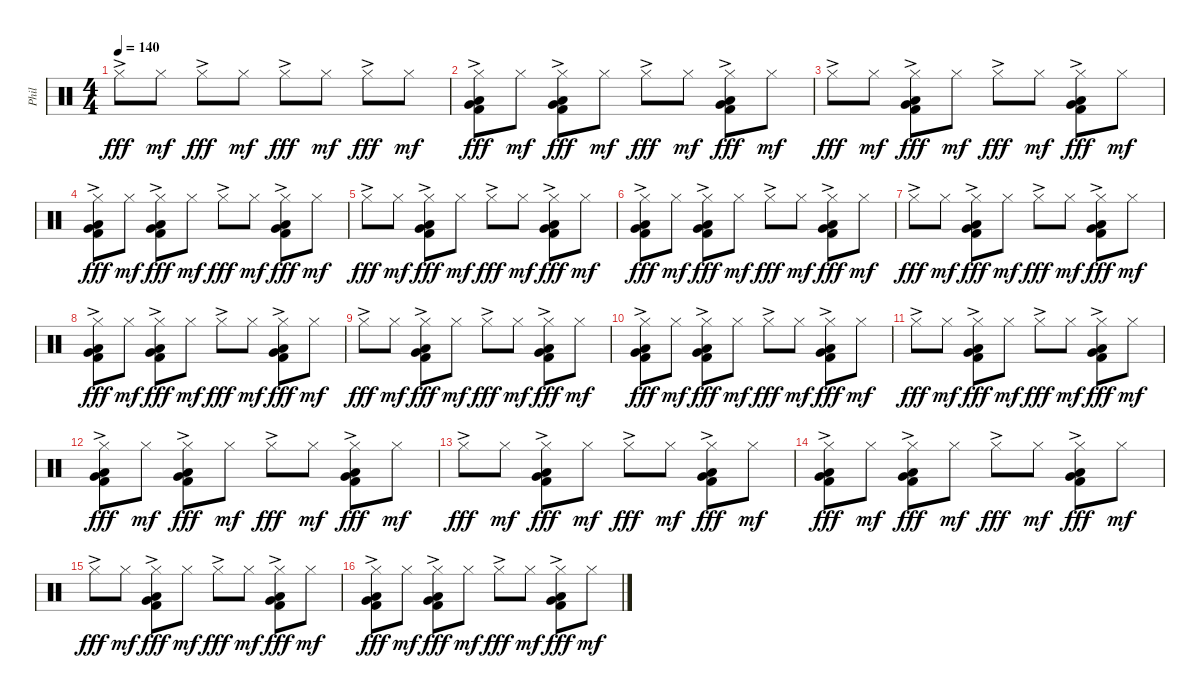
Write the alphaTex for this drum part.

\track ("Phil" "Phil") {instrument percussion}
\staff {score}
\articulation defaults
\ts (4 4)
\tempo 140
\clef neutral
\ks c "Hi-Hat (closed)"{ac}.8{dy fff} "Hi-Hat (closed)".8{dy mf} "Hi-Hat (closed)"{ac}.8{dy fff} "Hi-Hat (closed)".8{dy mf} "Hi-Hat (closed)"{ac}.8{dy fff} "Hi-Hat (closed)".8{dy mf} "Hi-Hat (closed)"{ac}.8{dy fff} "Hi-Hat (closed)".8{dy mf}
|
("Hi-Hat (closed)"{ac} "Very Low Tom (hit)"{ac} "Low Floor Tom (hit)"{ac} "Kick (hit) 2"{ac}).8{dy fff} "Hi-Hat (closed)".8{dy mf} ("Hi-Hat (closed)"{ac} "Very Low Tom (hit)"{ac} "Low Floor Tom (hit)"{ac} "Kick (hit) 2"{ac}).8{dy fff} "Hi-Hat (closed)".8{dy mf} "Hi-Hat (closed)"{ac}.8{dy fff} "Hi-Hat (closed)".8{dy mf} ("Hi-Hat (closed)"{ac} "Very Low Tom (hit)" "Low Floor Tom (hit)" "Kick (hit) 2").8{dy fff} "Hi-Hat (closed)".8{dy mf} |
"Hi-Hat (closed)"{ac}.8{dy fff} "Hi-Hat (closed)".8{dy mf} ("Hi-Hat (closed)"{ac} "Very Low Tom (hit)" "Low Floor Tom (hit)" "Kick (hit) 2").8{dy fff} "Hi-Hat (closed)".8{dy mf} "Hi-Hat (closed)"{ac}.8{dy fff} "Hi-Hat (closed)".8{dy mf} ("Hi-Hat (closed)"{ac} "Very Low Tom (hit)" "Low Floor Tom (hit)" "Kick (hit) 2").8{dy fff} "Hi-Hat (closed)".8{dy mf} |
("Hi-Hat (closed)"{ac} "Very Low Tom (hit)"{ac} "Low Floor Tom (hit)"{ac} "Kick (hit) 2"{ac}).8{dy fff} "Hi-Hat (closed)".8{dy mf} ("Hi-Hat (closed)"{ac} "Very Low Tom (hit)"{ac} "Low Floor Tom (hit)"{ac} "Kick (hit) 2"{ac}).8{dy fff} "Hi-Hat (closed)".8{dy mf} "Hi-Hat (closed)"{ac}.8{dy fff} "Hi-Hat (closed)".8{dy mf} ("Hi-Hat (closed)"{ac} "Very Low Tom (hit)" "Low Floor Tom (hit)" "Kick (hit) 2").8{dy fff} "Hi-Hat (closed)".8{dy mf} |
"Hi-Hat (closed)"{ac}.8{dy fff} "Hi-Hat (closed)".8{dy mf} ("Hi-Hat (closed)"{ac} "Very Low Tom (hit)" "Low Floor Tom (hit)" "Kick (hit) 2").8{dy fff} "Hi-Hat (closed)".8{dy mf} "Hi-Hat (closed)"{ac}.8{dy fff} "Hi-Hat (closed)".8{dy mf} ("Hi-Hat (closed)"{ac} "Very Low Tom (hit)" "Low Floor Tom (hit)" "Kick (hit) 2").8{dy fff} "Hi-Hat (closed)".8{dy mf} |
("Hi-Hat (closed)"{ac} "Very Low Tom (hit)"{ac} "Low Floor Tom (hit)"{ac} "Kick (hit) 2"{ac}).8{dy fff} "Hi-Hat (closed)".8{dy mf} ("Hi-Hat (closed)"{ac} "Very Low Tom (hit)"{ac} "Low Floor Tom (hit)"{ac} "Kick (hit) 2"{ac}).8{dy fff} "Hi-Hat (closed)".8{dy mf} "Hi-Hat (closed)"{ac}.8{dy fff} "Hi-Hat (closed)".8{dy mf} ("Hi-Hat (closed)"{ac} "Very Low Tom (hit)" "Low Floor Tom (hit)" "Kick (hit) 2").8{dy fff} "Hi-Hat (closed)".8{dy mf} |
"Hi-Hat (closed)"{ac}.8{dy fff} "Hi-Hat (closed)".8{dy mf} ("Hi-Hat (closed)"{ac} "Very Low Tom (hit)" "Low Floor Tom (hit)" "Kick (hit) 2").8{dy fff} "Hi-Hat (closed)".8{dy mf} "Hi-Hat (closed)"{ac}.8{dy fff} "Hi-Hat (closed)".8{dy mf} ("Hi-Hat (closed)"{ac} "Very Low Tom (hit)" "Low Floor Tom (hit)" "Kick (hit) 2").8{dy fff} "Hi-Hat (closed)".8{dy mf} |
("Hi-Hat (closed)"{ac} "Very Low Tom (hit)"{ac} "Low Floor Tom (hit)"{ac} "Kick (hit) 2"{ac}).8{dy fff} "Hi-Hat (closed)".8{dy mf} ("Hi-Hat (closed)"{ac} "Very Low Tom (hit)"{ac} "Low Floor Tom (hit)"{ac} "Kick (hit) 2"{ac}).8{dy fff} "Hi-Hat (closed)".8{dy mf} "Hi-Hat (closed)"{ac}.8{dy fff} "Hi-Hat (closed)".8{dy mf} ("Hi-Hat (closed)"{ac} "Very Low Tom (hit)" "Low Floor Tom (hit)" "Kick (hit) 2").8{dy fff} "Hi-Hat (closed)".8{dy mf} |
"Hi-Hat (closed)"{ac}.8{dy fff} "Hi-Hat (closed)".8{dy mf} ("Hi-Hat (closed)"{ac} "Very Low Tom (hit)" "Low Floor Tom (hit)" "Kick (hit) 2").8{dy fff} "Hi-Hat (closed)".8{dy mf} "Hi-Hat (closed)"{ac}.8{dy fff} "Hi-Hat (closed)".8{dy mf} ("Hi-Hat (closed)"{ac} "Very Low Tom (hit)" "Low Floor Tom (hit)" "Kick (hit) 2").8{dy fff} "Hi-Hat (closed)".8{dy mf} |
("Hi-Hat (closed)"{ac} "Very Low Tom (hit)"{ac} "Low Floor Tom (hit)"{ac} "Kick (hit) 2"{ac}).8{dy fff} "Hi-Hat (closed)".8{dy mf} ("Hi-Hat (closed)"{ac} "Very Low Tom (hit)"{ac} "Low Floor Tom (hit)"{ac} "Kick (hit) 2"{ac}).8{dy fff} "Hi-Hat (closed)".8{dy mf} "Hi-Hat (closed)"{ac}.8{dy fff} "Hi-Hat (closed)".8{dy mf} ("Hi-Hat (closed)"{ac} "Very Low Tom (hit)" "Low Floor Tom (hit)" "Kick (hit) 2").8{dy fff} "Hi-Hat (closed)".8{dy mf} |
"Hi-Hat (closed)"{ac}.8{dy fff} "Hi-Hat (closed)".8{dy mf} ("Hi-Hat (closed)"{ac} "Very Low Tom (hit)" "Low Floor Tom (hit)" "Kick (hit) 2").8{dy fff} "Hi-Hat (closed)".8{dy mf} "Hi-Hat (closed)"{ac}.8{dy fff} "Hi-Hat (closed)".8{dy mf} ("Hi-Hat (closed)"{ac} "Very Low Tom (hit)" "Low Floor Tom (hit)" "Kick (hit) 2").8{dy fff} "Hi-Hat (closed)".8{dy mf} |
("Hi-Hat (closed)"{ac} "Very Low Tom (hit)"{ac} "Low Floor Tom (hit)"{ac} "Kick (hit) 2"{ac}).8{dy fff} "Hi-Hat (closed)".8{dy mf} ("Hi-Hat (closed)"{ac} "Very Low Tom (hit)"{ac} "Low Floor Tom (hit)"{ac} "Kick (hit) 2"{ac}).8{dy fff} "Hi-Hat (closed)".8{dy mf} "Hi-Hat (closed)"{ac}.8{dy fff} "Hi-Hat (closed)".8{dy mf} ("Hi-Hat (closed)"{ac} "Very Low Tom (hit)" "Low Floor Tom (hit)" "Kick (hit) 2").8{dy fff} "Hi-Hat (closed)".8{dy mf} |
"Hi-Hat (closed)"{ac}.8{dy fff} "Hi-Hat (closed)".8{dy mf} ("Hi-Hat (closed)"{ac} "Very Low Tom (hit)" "Low Floor Tom (hit)" "Kick (hit) 2").8{dy fff} "Hi-Hat (closed)".8{dy mf} "Hi-Hat (closed)"{ac}.8{dy fff} "Hi-Hat (closed)".8{dy mf} ("Hi-Hat (closed)"{ac} "Very Low Tom (hit)" "Low Floor Tom (hit)" "Kick (hit) 2").8{dy fff} "Hi-Hat (closed)".8{dy mf} |
("Hi-Hat (closed)"{ac} "Very Low Tom (hit)"{ac} "Low Floor Tom (hit)"{ac} "Kick (hit) 2"{ac}).8{dy fff} "Hi-Hat (closed)".8{dy mf} ("Hi-Hat (closed)"{ac} "Very Low Tom (hit)"{ac} "Low Floor Tom (hit)"{ac} "Kick (hit) 2"{ac}).8{dy fff} "Hi-Hat (closed)".8{dy mf} "Hi-Hat (closed)"{ac}.8{dy fff} "Hi-Hat (closed)".8{dy mf} ("Hi-Hat (closed)"{ac} "Very Low Tom (hit)" "Low Floor Tom (hit)" "Kick (hit) 2").8{dy fff} "Hi-Hat (closed)".8{dy mf} |
"Hi-Hat (closed)"{ac}.8{dy fff} "Hi-Hat (closed)".8{dy mf} ("Hi-Hat (closed)"{ac} "Very Low Tom (hit)" "Low Floor Tom (hit)" "Kick (hit) 2").8{dy fff} "Hi-Hat (closed)".8{dy mf} "Hi-Hat (closed)"{ac}.8{dy fff} "Hi-Hat (closed)".8{dy mf} ("Hi-Hat (closed)"{ac} "Very Low Tom (hit)" "Low Floor Tom (hit)" "Kick (hit) 2").8{dy fff} "Hi-Hat (closed)".8{dy mf} |
("Hi-Hat (closed)"{ac} "Very Low Tom (hit)"{ac} "Low Floor Tom (hit)"{ac} "Kick (hit) 2"{ac}).8{dy fff} "Hi-Hat (closed)".8{dy mf} ("Hi-Hat (closed)"{ac} "Very Low Tom (hit)"{ac} "Low Floor Tom (hit)"{ac} "Kick (hit) 2"{ac}).8{dy fff} "Hi-Hat (closed)".8{dy mf} "Hi-Hat (closed)"{ac}.8{dy fff} "Hi-Hat (closed)".8{dy mf} ("Hi-Hat (closed)"{ac} "Very Low Tom (hit)" "Low Floor Tom (hit)" "Kick (hit) 2").8{dy fff} "Hi-Hat (closed)".8{dy mf}
